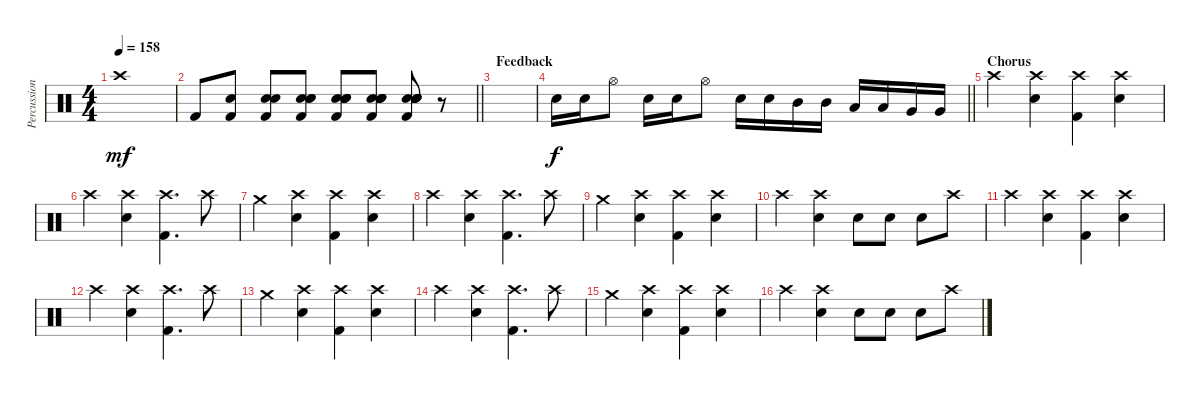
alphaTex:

\track ("Percussion" "Percussion") {instrument percussion}
\staff {score}
\articulation defaults
\ts (4 4)
\tempo 158
\clef neutral
\ks c "Crash high (hit)".1{dy mf}
|
\barLineRight lightlight "Kick (hit) 2".8
("Electric Snare (hit)" "Kick (hit) 2").8 ("Electric Snare (hit)" "Electric Snare (hit)" "Kick (hit) 2").8 ("Electric Snare (hit)" "Electric Snare (hit)" "Electric Snare (hit)" "Kick (hit) 2").8 ("Electric Snare (hit)" "Electric Snare (hit)" "Electric Snare (hit)" "Electric Snare (hit)" "Kick (hit) 2").8 ("Electric Snare (hit)" "Electric Snare (hit)" "Electric Snare (hit)" "Electric Snare (hit)" "Electric Snare (hit)" "Kick (hit) 2").8 ("Electric Snare (hit)" "Electric Snare (hit)" "Electric Snare (hit)" "Electric Snare (hit)" "Electric Snare (hit)" "Kick (hit) 2").8 r.8 |
\section ("" "Feedback")
|
\barLineRight lightlight "Electric Snare (hit)".16{dy f} "Electric Snare (hit)".16 "Hi-Hat (open)".8 "Electric Snare (hit)".16 "Electric Snare (hit)".16 "Hi-Hat (open)".8 "Electric Snare (hit)".16 "Electric Snare (hit)".16 "Mid Tom (hit)".16 "Mid Tom (hit)".16 "Low Tom (hit)".16 "Low Tom (hit)".16 "Very Low Tom (hit)".16 "Very Low Tom (hit)".16
|
\section ("" "Chorus")
"Crash high (hit)".4 ("Crash high (hit)" "Electric Snare (hit)").4 ("Crash high (hit)" "Kick (hit) 2").4 ("Crash high (hit)" "Electric Snare (hit)").4 |
"Crash high (hit)".4 ("Crash high (hit)" "Electric Snare (hit)").4 ("Crash high (hit)" "Kick (hit) 2").4{d} "Crash high (hit)".8 |
"Crash medium (hit)".4 ("Crash high (hit)" "Electric Snare (hit)").4 ("Crash high (hit)" "Kick (hit) 2").4 ("Crash high (hit)" "Electric Snare (hit)").4 |
"Crash high (hit)".4 ("Crash high (hit)" "Electric Snare (hit)").4 ("Crash high (hit)" "Kick (hit) 2").4{d} "Crash high (hit)".8 |
"Crash medium (hit)".4 ("Crash high (hit)" "Electric Snare (hit)").4 ("Crash high (hit)" "Kick (hit) 2").4 ("Crash high (hit)" "Electric Snare (hit)").4 |
"Crash high (hit)".4 ("Crash high (hit)" "Electric Snare (hit)").4 "Electric Snare (hit)".8 "Electric Snare (hit)".8 "Electric Snare (hit)".8 "Crash high (hit)".8 |
"Crash high (hit)".4 ("Crash high (hit)" "Electric Snare (hit)").4 ("Crash high (hit)" "Kick (hit) 2").4 ("Crash high (hit)" "Electric Snare (hit)").4 |
"Crash high (hit)".4 ("Crash high (hit)" "Electric Snare (hit)").4 ("Crash high (hit)" "Kick (hit) 2").4{d} "Crash high (hit)".8 |
"Crash medium (hit)".4 ("Crash high (hit)" "Electric Snare (hit)").4 ("Crash high (hit)" "Kick (hit) 2").4 ("Crash high (hit)" "Electric Snare (hit)").4 |
"Crash high (hit)".4 ("Crash high (hit)" "Electric Snare (hit)").4 ("Crash high (hit)" "Kick (hit) 2").4{d} "Crash high (hit)".8 |
"Crash medium (hit)".4 ("Crash high (hit)" "Electric Snare (hit)").4 ("Crash high (hit)" "Kick (hit) 2").4 ("Crash high (hit)" "Electric Snare (hit)").4 |
"Crash high (hit)".4 ("Crash high (hit)" "Electric Snare (hit)").4 "Electric Snare (hit)".8 "Electric Snare (hit)".8 "Electric Snare (hit)".8 "Crash high (hit)".8
